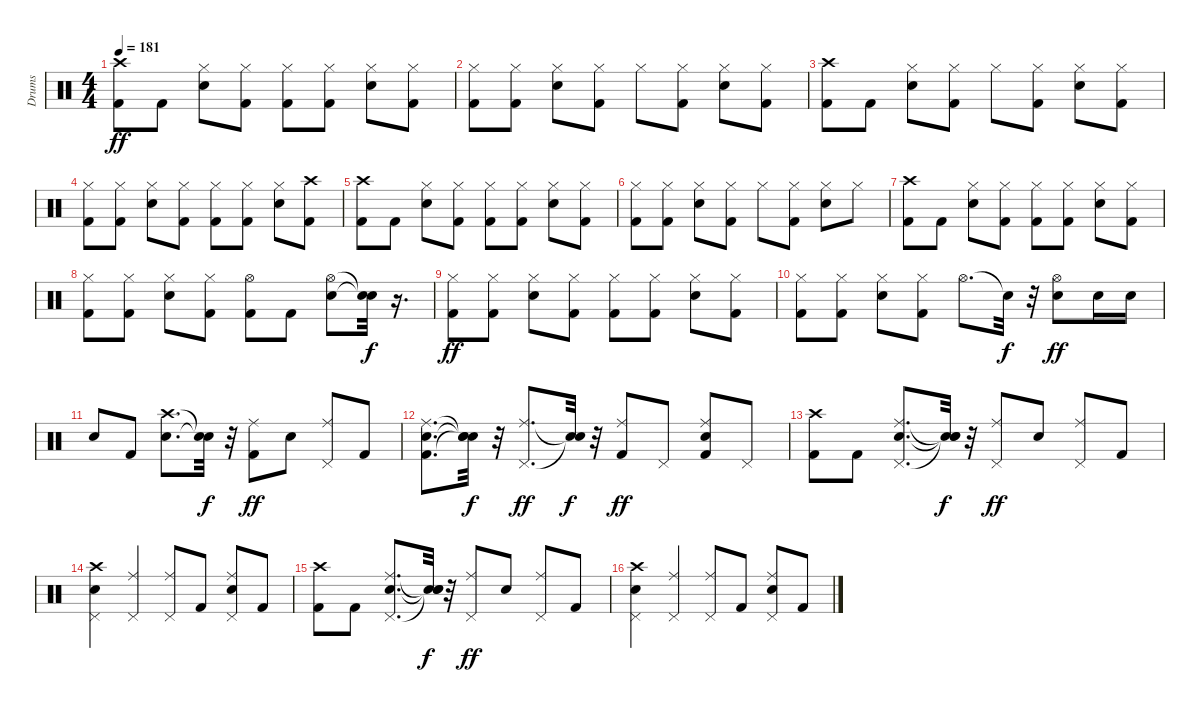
\track ("Drums" "Drums") {instrument percussion}
\staff {score}
\articulation defaults
\ts (4 4)
\tempo 181
\clef neutral
\ks c
("Kick (hit) 2" "Crash high (hit)").8{dy ff} "Kick (hit) 2".8 ("Snare (hit) 2" "Hi-Hat (closed)").8 ("Kick (hit) 2" "Hi-Hat (closed)").8 ("Kick (hit) 2" "Hi-Hat (closed)").8 ("Kick (hit) 2" "Hi-Hat (closed)").8 ("Snare (hit) 2" "Hi-Hat (closed)").8 ("Kick (hit) 2" "Hi-Hat (closed)").8 |
("Kick (hit) 2" "Hi-Hat (closed)").8 ("Kick (hit) 2" "Hi-Hat (closed)").8 ("Snare (hit) 2" "Hi-Hat (closed)").8 ("Kick (hit) 2" "Hi-Hat (closed)").8 "Hi-Hat (closed)".8 ("Kick (hit) 2" "Hi-Hat (closed)").8 ("Snare (hit) 2" "Hi-Hat (closed)").8 ("Kick (hit) 2" "Hi-Hat (closed)").8 |
("Kick (hit) 2" "Crash high (hit)").8 "Kick (hit) 2".8 ("Snare (hit) 2" "Hi-Hat (closed)").8 ("Kick (hit) 2" "Hi-Hat (closed)").8 "Hi-Hat (closed)".8 ("Kick (hit) 2" "Hi-Hat (closed)").8 ("Snare (hit) 2" "Hi-Hat (closed)").8 ("Kick (hit) 2" "Hi-Hat (closed)").8 |
("Kick (hit) 2" "Hi-Hat (closed)").8 ("Kick (hit) 2" "Hi-Hat (closed)").8 ("Snare (hit) 2" "Hi-Hat (closed)").8 ("Kick (hit) 2" "Hi-Hat (closed)").8 ("Kick (hit) 2" "Hi-Hat (closed)").8 ("Kick (hit) 2" "Hi-Hat (closed)").8 ("Snare (hit) 2" "Hi-Hat (closed)").8 ("Kick (hit) 2" "Crash high (hit)").8 |
("Kick (hit) 2" "Crash high (hit)").8 "Kick (hit) 2".8 ("Snare (hit) 2" "Hi-Hat (closed)").8 ("Kick (hit) 2" "Hi-Hat (closed)").8 ("Kick (hit) 2" "Hi-Hat (closed)").8 ("Kick (hit) 2" "Hi-Hat (closed)").8 ("Snare (hit) 2" "Hi-Hat (closed)").8 ("Kick (hit) 2" "Hi-Hat (closed)").8 |
("Kick (hit) 2" "Hi-Hat (closed)").8 ("Kick (hit) 2" "Hi-Hat (closed)").8 ("Snare (hit) 2" "Hi-Hat (closed)").8 ("Kick (hit) 2" "Hi-Hat (closed)").8 "Hi-Hat (closed)".8 ("Kick (hit) 2" "Hi-Hat (closed)").8 ("Snare (hit) 2" "Hi-Hat (closed)").8 "Hi-Hat (closed)".8 |
("Kick (hit) 2" "Crash high (hit)").8 "Kick (hit) 2".8 ("Snare (hit) 2" "Hi-Hat (closed)").8 ("Kick (hit) 2" "Hi-Hat (closed)").8 ("Kick (hit) 2" "Hi-Hat (closed)").8 ("Kick (hit) 2" "Hi-Hat (closed)").8 ("Snare (hit) 2" "Hi-Hat (closed)").8 ("Kick (hit) 2" "Hi-Hat (closed)").8 |
("Kick (hit) 2" "Hi-Hat (closed)").8 ("Kick (hit) 2" "Hi-Hat (closed)").8 ("Snare (hit) 2" "Hi-Hat (closed)").8 ("Kick (hit) 2" "Hi-Hat (closed)").8 ("Kick (hit) 2" "Hi-Hat (open)").8 "Kick (hit) 2".8 ("Snare (hit) 2" "Hi-Hat (open)").8 ("Snare (hit)"{t} "Snare (hit)"{t}).32{dy f} r.16{d} |
("Kick (hit) 2" "Hi-Hat (closed)").8{dy ff} ("Kick (hit) 2" "Hi-Hat (closed)").8 ("Snare (hit) 2" "Hi-Hat (closed)").8 ("Kick (hit) 2" "Hi-Hat (closed)").8 ("Kick (hit) 2" "Hi-Hat (closed)").8 ("Kick (hit) 2" "Hi-Hat (closed)").8 ("Snare (hit) 2" "Hi-Hat (closed)").8 ("Kick (hit) 2" "Hi-Hat (closed)").8 |
("Kick (hit) 2" "Hi-Hat (closed)").8 ("Kick (hit) 2" "Hi-Hat (closed)").8 ("Snare (hit) 2" "Hi-Hat (closed)").8 ("Kick (hit) 2" "Hi-Hat (closed)").8 "Hi-Hat (open)".8{d} "Snare (hit)"{t}.32{dy f} r.32 ("Snare (hit) 2" "Hi-Hat (open)").8{dy ff} "Snare (hit) 2".16 "Snare (hit) 2".16 |
"Snare (hit) 2".8 "Kick (hit) 2".8 ("Snare (hit) 2" "Crash high (hit)").8{d} ("Snare (hit)"{t} "Snare (hit)"{t}).32{dy f} r.32 ("Kick (hit) 2" "Ride (middle)").8{dy ff} "Snare (hit) 2".8 ("Pedal Hi-Hat (hit)" "Ride (middle)").8 "Kick (hit) 2".8 |
("Kick (hit) 2" "Snare (hit) 2" "Ride (middle)").8{d} ("Snare (hit)"{t} "Snare (hit)"{t} "Snare (hit)"{t}).32{dy f} r.32 ("Pedal Hi-Hat (hit)" "Ride (middle)").8{d dy ff} ("Snare (hit)"{t} "Snare (hit)"{t}).32{dy f} r.32 ("Kick (hit) 2" "Ride (middle)").8{dy ff} "Pedal Hi-Hat (hit)".8 ("Kick (hit) 2" "Snare (hit) 2" "Ride (middle)").8 "Pedal Hi-Hat (hit)".8 |
("Kick (hit) 2" "Crash high (hit)").8 "Kick (hit) 2".8 ("Snare (hit) 2" "Pedal Hi-Hat (hit)" "Ride (middle)").8{d} ("Snare (hit)"{t} "Snare (hit)"{t} "Snare (hit)"{t}).32{dy f} r.32 ("Pedal Hi-Hat (hit)" "Ride (middle)").8{dy ff} "Snare (hit) 2".8 ("Pedal Hi-Hat (hit)" "Ride (middle)").8 "Kick (hit) 2".8 |
("Snare (hit) 2" "Pedal Hi-Hat (hit)" "Crash high (hit)").4 ("Pedal Hi-Hat (hit)" "Ride (middle)").4 ("Pedal Hi-Hat (hit)" "Ride (middle)").8 "Kick (hit) 2".8 ("Snare (hit) 2" "Pedal Hi-Hat (hit)" "Ride (middle)").8 "Kick (hit) 2".8 |
("Kick (hit) 2" "Crash high (hit)").8 "Kick (hit) 2".8 ("Snare (hit) 2" "Pedal Hi-Hat (hit)" "Ride (middle)").8{d} ("Snare (hit)"{t} "Snare (hit)"{t} "Snare (hit)"{t}).32{dy f} r.32 ("Pedal Hi-Hat (hit)" "Ride (middle)").8{dy ff} "Snare (hit) 2".8 ("Pedal Hi-Hat (hit)" "Ride (middle)").8 "Kick (hit) 2".8 |
("Snare (hit) 2" "Pedal Hi-Hat (hit)" "Crash high (hit)").4 ("Pedal Hi-Hat (hit)" "Ride (middle)").4 ("Pedal Hi-Hat (hit)" "Ride (middle)").8 "Kick (hit) 2".8 ("Snare (hit) 2" "Pedal Hi-Hat (hit)" "Ride (middle)").8 "Kick (hit) 2".8
